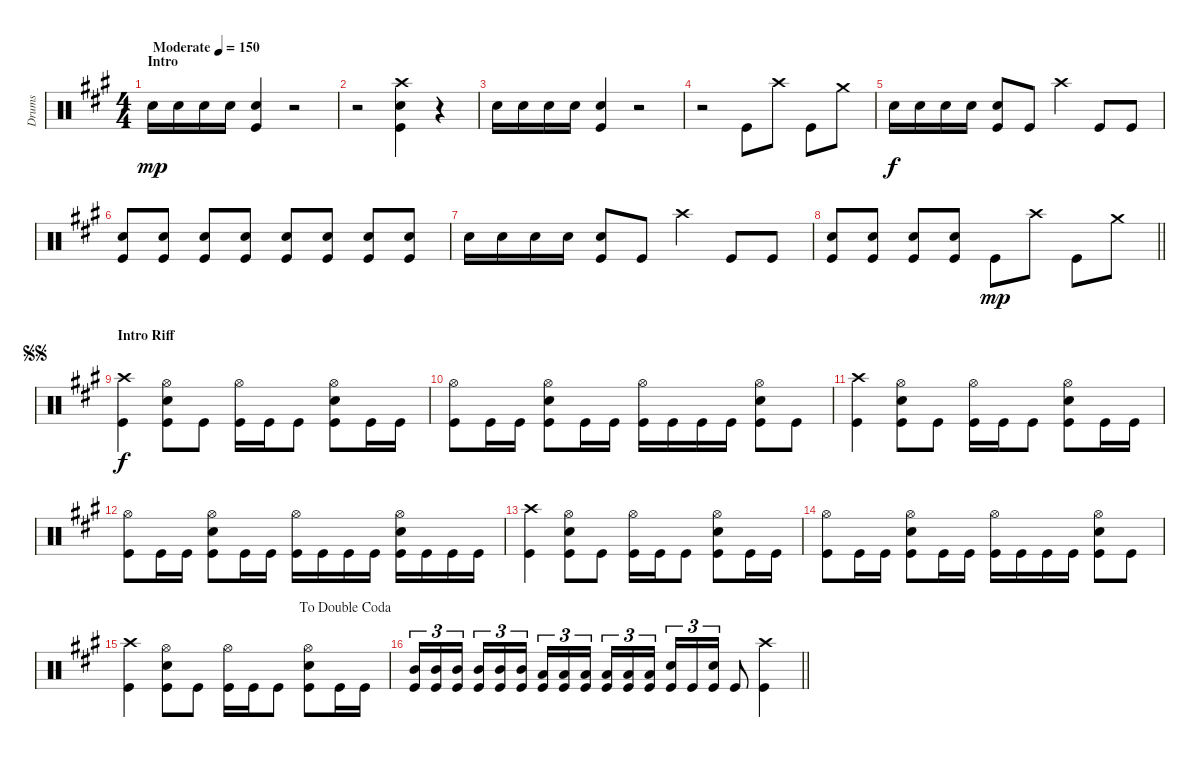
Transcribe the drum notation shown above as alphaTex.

\track ("Drums" "Drums") {instrument percussion}
\staff {score}
\articulation defaults
\ts (4 4)
\section ("" "Intro")
\tempo (150 "Moderate")
\clef neutral
\ks f#minor "Snare (hit) 2".16{dy mp} "Snare (hit) 2".16 "Snare (hit) 2".16 "Snare (hit) 2".16
("Snare (hit) 2" "Kick (hit)").4 r.2 |
r.2 ("Kick (hit)" "Crash high (hit)" "Snare (hit) 2").4 r.4 |
"Snare (hit) 2".16 "Snare (hit) 2".16 "Snare (hit) 2".16 "Snare (hit) 2".16 ("Snare (hit) 2" "Kick (hit)").4 r.2 |
r.2 "Kick (hit)".8 "Crash high (hit)".8 "Kick (hit)".8 "Crash medium (hit)".8 |
"Snare (hit) 2".16{dy f} "Snare (hit) 2".16 "Snare (hit) 2".16 "Snare (hit) 2".16 ("Kick (hit)" "Snare (hit) 2").8 "Kick (hit)".8 "Crash high (hit)".4 "Kick (hit)".8 "Kick (hit)".8 |
("Kick (hit)" "Snare (hit) 2").8 ("Kick (hit)" "Snare (hit) 2").8 ("Kick (hit)" "Snare (hit) 2").8 ("Kick (hit)" "Snare (hit) 2").8 ("Kick (hit)" "Snare (hit) 2").8 ("Kick (hit)" "Snare (hit) 2").8 ("Kick (hit)" "Snare (hit) 2").8 ("Kick (hit)" "Snare (hit) 2").8 |
"Snare (hit) 2".16 "Snare (hit) 2".16 "Snare (hit) 2".16 "Snare (hit) 2".16 ("Kick (hit)" "Snare (hit) 2").8 "Kick (hit)".8 "Crash high (hit)".4 "Kick (hit)".8 "Kick (hit)".8 |
\barLineRight lightlight
("Kick (hit)" "Snare (hit) 2").8 ("Kick (hit)" "Snare (hit) 2").8 ("Kick (hit)" "Snare (hit) 2").8 ("Kick (hit)" "Snare (hit) 2").8 "Kick (hit)".8{dy mp} "Crash high (hit)".8 "Kick (hit)".8 "Crash medium (hit)".8 |
\section ("" "Intro Riff")
\jump segnosegno
("Kick (hit)" "Crash high (hit)").4{dy f} ("Kick (hit)" "Snare (hit) 2" "Hi-Hat (open)").8 "Kick (hit)".8 ("Kick (hit)" "Hi-Hat (open)").16 "Kick (hit)".16 "Kick (hit)".8 ("Kick (hit)" "Snare (hit) 2" "Hi-Hat (open)").8 "Kick (hit)".16 "Kick (hit)".16 |
("Kick (hit)" "Hi-Hat (open)").8 "Kick (hit)".16 "Kick (hit)".16 ("Kick (hit)" "Snare (hit) 2" "Hi-Hat (open)").8 "Kick (hit)".16 "Kick (hit)".16 ("Kick (hit)" "Hi-Hat (open)").16 "Kick (hit)".16 "Kick (hit)".16 "Kick (hit)".16 ("Kick (hit)" "Snare (hit) 2" "Hi-Hat (open)").8 "Kick (hit)".8 |
("Kick (hit)" "Crash high (hit)").4 ("Kick (hit)" "Snare (hit) 2" "Hi-Hat (open)").8 "Kick (hit)".8 ("Kick (hit)" "Hi-Hat (open)").16 "Kick (hit)".16 "Kick (hit)".8 ("Kick (hit)" "Snare (hit) 2" "Hi-Hat (open)").8 "Kick (hit)".16 "Kick (hit)".16 |
("Kick (hit)" "Hi-Hat (open)").8 "Kick (hit)".16 "Kick (hit)".16 ("Kick (hit)" "Snare (hit) 2" "Hi-Hat (open)").8 "Kick (hit)".16 "Kick (hit)".16 ("Kick (hit)" "Hi-Hat (open)").16 "Kick (hit)".16 "Kick (hit)".16 "Kick (hit)".16 ("Kick (hit)" "Snare (hit) 2" "Hi-Hat (open)").16 "Kick (hit)".16 "Kick (hit)".16 "Kick (hit)".16 |
("Kick (hit)" "Crash high (hit)").4 ("Kick (hit)" "Snare (hit) 2" "Hi-Hat (open)").8 "Kick (hit)".8 ("Kick (hit)" "Hi-Hat (open)").16 "Kick (hit)".16 "Kick (hit)".8 ("Kick (hit)" "Snare (hit) 2" "Hi-Hat (open)").8 "Kick (hit)".16 "Kick (hit)".16 |
("Kick (hit)" "Hi-Hat (open)").8 "Kick (hit)".16 "Kick (hit)".16 ("Kick (hit)" "Snare (hit) 2" "Hi-Hat (open)").8 "Kick (hit)".16 "Kick (hit)".16 ("Kick (hit)" "Hi-Hat (open)").16 "Kick (hit)".16 "Kick (hit)".16 "Kick (hit)".16 ("Kick (hit)" "Snare (hit) 2" "Hi-Hat (open)").8 "Kick (hit)".8 |
\jump dadoublecoda
("Kick (hit)" "Crash high (hit)").4 ("Kick (hit)" "Snare (hit) 2" "Hi-Hat (open)").8 "Kick (hit)".8 ("Kick (hit)" "Hi-Hat (open)").16 "Kick (hit)".16 "Kick (hit)".8 ("Kick (hit)" "Snare (hit) 2" "Hi-Hat (open)").8 "Kick (hit)".16 "Kick (hit)".16 |
\barLineRight lightlight
("Kick (hit)" "Mid Tom (hit)").16{tu (3 2)} ("Kick (hit)" "Mid Tom (hit)").16{tu (3 2)} ("Kick (hit)" "Mid Tom (hit)").16{tu (3 2) beam splitsecondary} ("Kick (hit)" "Mid Tom (hit)").16{tu (3 2)} ("Kick (hit)" "Mid Tom (hit)").16{tu (3 2)} ("Kick (hit)" "Mid Tom (hit)").16{tu (3 2)} ("Kick (hit)" "Low Tom (hit)").16{tu (3 2)} ("Kick (hit)" "Low Tom (hit)").16{tu (3 2)} ("Kick (hit)" "Low Tom (hit)").16{tu (3 2) beam splitsecondary} ("Kick (hit)" "Low Tom (hit)").16{tu (3 2)} ("Kick (hit)" "Low Tom (hit)").16{tu (3 2)} ("Kick (hit)" "Low Tom (hit)").16{tu (3 2)} ("Kick (hit)" "Snare (hit) 2").16{tu (3 2)} "Kick (hit)".16{tu (3 2)} ("Kick (hit)" "Snare (hit) 2").16{tu (3 2)} "Kick (hit)".8 ("Crash high (hit)" "Kick (hit)").4
